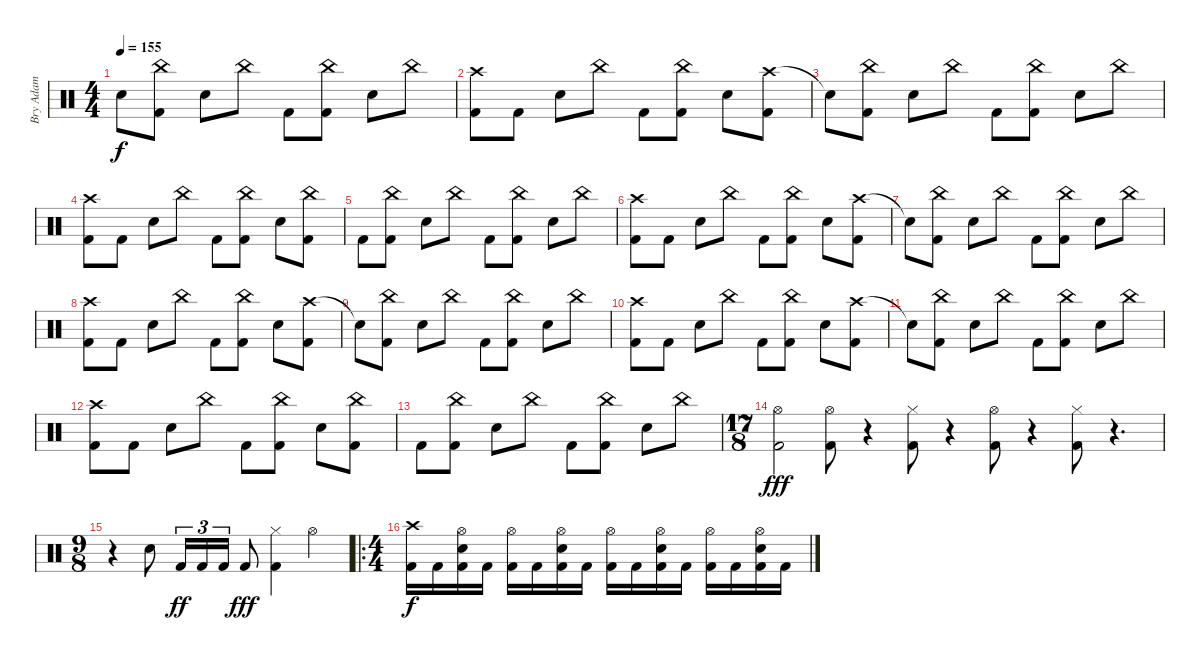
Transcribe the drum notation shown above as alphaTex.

\track ("Bry Adam " "Bry Adam ") {instrument percussion}
\staff {score}
\articulation defaults
\ts (4 4)
\tempo 155
\clef neutral
\ks c "Snare (hit)"{t}.8{dy f}
("China (hit)" "Kick (hit) 2").8 "Snare (hit) 2".8 "China (hit)".8 "Kick (hit) 2".8 ("China (hit)" "Kick (hit) 2").8 "Snare (hit) 2".8 "China (hit)".8 |
("Crash high (hit)" "Kick (hit) 2").8 "Kick (hit) 2".8 "Snare (hit) 2".8 "China (hit)".8 "Kick (hit) 2".8 ("China (hit)" "Kick (hit) 2").8 "Snare (hit) 2".8 ("Crash high (hit)" "Kick (hit) 2").8 |
"Snare (hit)"{t}.8 ("China (hit)" "Kick (hit) 2").8 "Snare (hit) 2".8 "China (hit)".8 "Kick (hit) 2".8 ("China (hit)" "Kick (hit) 2").8 "Snare (hit) 2".8 "China (hit)".8 |
("Crash high (hit)" "Kick (hit) 2").8 "Kick (hit) 2".8 "Snare (hit) 2".8 "China (hit)".8 "Kick (hit) 2".8 ("China (hit)" "Kick (hit) 2").8 "Snare (hit) 2".8 ("China (hit)" "Kick (hit) 2").8 |
"Kick (hit) 2".8 ("China (hit)" "Kick (hit) 2").8 "Snare (hit) 2".8 "China (hit)".8 "Kick (hit) 2".8 ("China (hit)" "Kick (hit) 2").8 "Snare (hit) 2".8 "China (hit)".8 |
("Crash high (hit)" "Kick (hit) 2").8 "Kick (hit) 2".8 "Snare (hit) 2".8 "China (hit)".8 "Kick (hit) 2".8 ("China (hit)" "Kick (hit) 2").8 "Snare (hit) 2".8 ("Crash high (hit)" "Kick (hit) 2").8 |
"Snare (hit)"{t}.8 ("China (hit)" "Kick (hit) 2").8 "Snare (hit) 2".8 "China (hit)".8 "Kick (hit) 2".8 ("China (hit)" "Kick (hit) 2").8 "Snare (hit) 2".8 "China (hit)".8 |
("Crash high (hit)" "Kick (hit) 2").8 "Kick (hit) 2".8 "Snare (hit) 2".8 "China (hit)".8 "Kick (hit) 2".8 ("China (hit)" "Kick (hit) 2").8 "Snare (hit) 2".8 ("Crash high (hit)" "Kick (hit) 2").8 |
"Snare (hit)"{t}.8 ("China (hit)" "Kick (hit) 2").8 "Snare (hit) 2".8 "China (hit)".8 "Kick (hit) 2".8 ("China (hit)" "Kick (hit) 2").8 "Snare (hit) 2".8 "China (hit)".8 |
("Crash high (hit)" "Kick (hit) 2").8 "Kick (hit) 2".8 "Snare (hit) 2".8 "China (hit)".8 "Kick (hit) 2".8 ("China (hit)" "Kick (hit) 2").8 "Snare (hit) 2".8 ("Crash high (hit)" "Kick (hit) 2").8 |
"Snare (hit)"{t}.8 ("China (hit)" "Kick (hit) 2").8 "Snare (hit) 2".8 "China (hit)".8 "Kick (hit) 2".8 ("China (hit)" "Kick (hit) 2").8 "Snare (hit) 2".8 "China (hit)".8 |
("Crash high (hit)" "Kick (hit) 2").8 "Kick (hit) 2".8 "Snare (hit) 2".8 "China (hit)".8 "Kick (hit) 2".8 ("China (hit)" "Kick (hit) 2").8 "Snare (hit) 2".8 ("China (hit)" "Kick (hit) 2").8 |
"Kick (hit) 2".8 ("China (hit)" "Kick (hit) 2").8 "Snare (hit) 2".8 "China (hit)".8 "Kick (hit) 2".8 ("China (hit)" "Kick (hit) 2").8 "Snare (hit) 2".8 "China (hit)".8 |
\ts (17 8)
("Hi-Hat (open)" "Kick (hit) 2").2{dy fff} ("Hi-Hat (open)" "Kick (hit) 2").8 r.4 ("Hi-Hat (closed)" "Kick (hit) 2").8 r.4 ("Hi-Hat (open)" "Kick (hit) 2").8 r.4 ("Hi-Hat (closed)" "Kick (hit) 2").8 r.4{d} |
\ts (9 8)
r.4 "Snare (hit) 2".8 "Kick (hit) 2".16{tu (3 2) dy ff} "Kick (hit) 2".16{tu (3 2)} "Kick (hit) 2".16{tu (3 2)} "Kick (hit) 2".8{dy fff} ("Hi-Hat (closed)" "Kick (hit) 2").4 "Hi-Hat (open)".4 |
\ro
\ts (4 4)
("Crash high (hit)" "Kick (hit) 2").16{dy f} "Kick (hit) 2".16 ("Hi-Hat (open)" "Snare (hit) 2" "Kick (hit) 2").16 "Kick (hit) 2".16 ("Hi-Hat (open)" "Kick (hit) 2").16 "Kick (hit) 2".16 ("Hi-Hat (open)" "Snare (hit) 2" "Kick (hit) 2").16 "Kick (hit) 2".16 ("Hi-Hat (open)" "Kick (hit) 2").16 "Kick (hit) 2".16 ("Hi-Hat (open)" "Snare (hit) 2" "Kick (hit) 2").16 "Kick (hit) 2".16 ("Hi-Hat (open)" "Kick (hit) 2").16 "Kick (hit) 2".16 ("Hi-Hat (open)" "Snare (hit) 2" "Kick (hit) 2").16 "Kick (hit) 2".16
